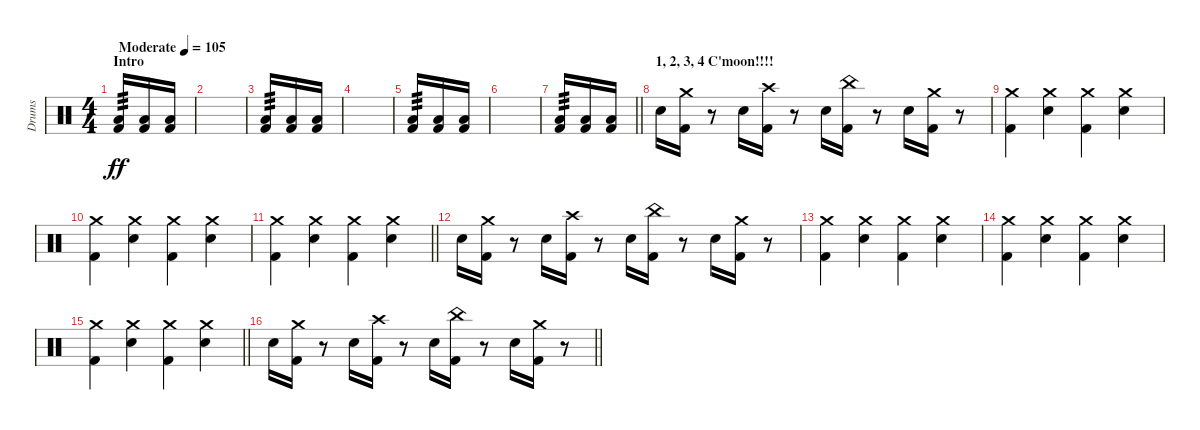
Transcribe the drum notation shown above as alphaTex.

\track ("Drums" "Drums") {instrument percussion}
\staff {score}
\articulation defaults
\ts (4 4)
\section ("" "Intro")
\tempo (105 "Moderate")
\clef neutral
\ks c
("Low Tom (hit)" "Kick (hit) 2").16{tp 3 dy ff} ("Low Tom (hit)" "Kick (hit) 2").16 ("Low Tom (hit)" "Kick (hit) 2").16 |
|
("Low Tom (hit)" "Kick (hit) 2").16{tp 3} ("Low Tom (hit)" "Kick (hit) 2").16 ("Low Tom (hit)" "Kick (hit) 2").16 |
|
("Low Tom (hit)" "Kick (hit) 2").16{tp 3} ("Low Tom (hit)" "Kick (hit) 2").16 ("Low Tom (hit)" "Kick (hit) 2").16 |
|
\barLineRight lightlight
("Low Tom (hit)" "Kick (hit) 2").16{tp 3} ("Low Tom (hit)" "Kick (hit) 2").16 ("Low Tom (hit)" "Kick (hit) 2").16 |
\section ("" "1, 2, 3, 4 C'moon!!!!")
"Snare (hit) 2".16 ("Crash medium (hit)" "Kick (hit) 2").16 r.8 "Snare (hit) 2".16 ("Crash high (hit)" "Kick (hit) 2").16 r.8 "Snare (hit) 2".16 ("China (hit)" "Kick (hit) 2").16 r.8 "Snare (hit) 2".16 ("Crash medium (hit)" "Kick (hit) 2").16 r.8 |
("Crash medium (hit)" "Kick (hit) 2").4 ("Crash medium (hit)" "Snare (hit) 2").4 ("Crash medium (hit)" "Kick (hit) 2").4 ("Crash medium (hit)" "Snare (hit) 2").4 |
("Crash medium (hit)" "Kick (hit) 2").4 ("Crash medium (hit)" "Snare (hit) 2").4 ("Crash medium (hit)" "Kick (hit) 2").4 ("Crash medium (hit)" "Snare (hit) 2").4 |
\barLineRight lightlight
("Crash medium (hit)" "Kick (hit) 2").4 ("Crash medium (hit)" "Snare (hit) 2").4 ("Crash medium (hit)" "Kick (hit) 2").4 ("Crash medium (hit)" "Snare (hit) 2").4 |
"Snare (hit) 2".16 ("Crash medium (hit)" "Kick (hit) 2").16 r.8 "Snare (hit) 2".16 ("Crash high (hit)" "Kick (hit) 2").16 r.8 "Snare (hit) 2".16 ("China (hit)" "Kick (hit) 2").16 r.8 "Snare (hit) 2".16 ("Crash medium (hit)" "Kick (hit) 2").16 r.8 |
("Crash medium (hit)" "Kick (hit) 2").4 ("Crash medium (hit)" "Snare (hit) 2").4 ("Crash medium (hit)" "Kick (hit) 2").4 ("Crash medium (hit)" "Snare (hit) 2").4 |
("Crash medium (hit)" "Kick (hit) 2").4 ("Crash medium (hit)" "Snare (hit) 2").4 ("Crash medium (hit)" "Kick (hit) 2").4 ("Crash medium (hit)" "Snare (hit) 2").4 |
\barLineRight lightlight
("Crash medium (hit)" "Kick (hit) 2").4 ("Crash medium (hit)" "Snare (hit) 2").4 ("Crash medium (hit)" "Kick (hit) 2").4 ("Crash medium (hit)" "Snare (hit) 2").4 |
\barLineRight lightlight "Snare (hit) 2".16
("Crash medium (hit)" "Kick (hit) 2").16 r.8 "Snare (hit) 2".16 ("Crash high (hit)" "Kick (hit) 2").16 r.8 "Snare (hit) 2".16 ("China (hit)" "Kick (hit) 2").16 r.8 "Snare (hit) 2".16 ("Crash medium (hit)" "Kick (hit) 2").16 r.8
